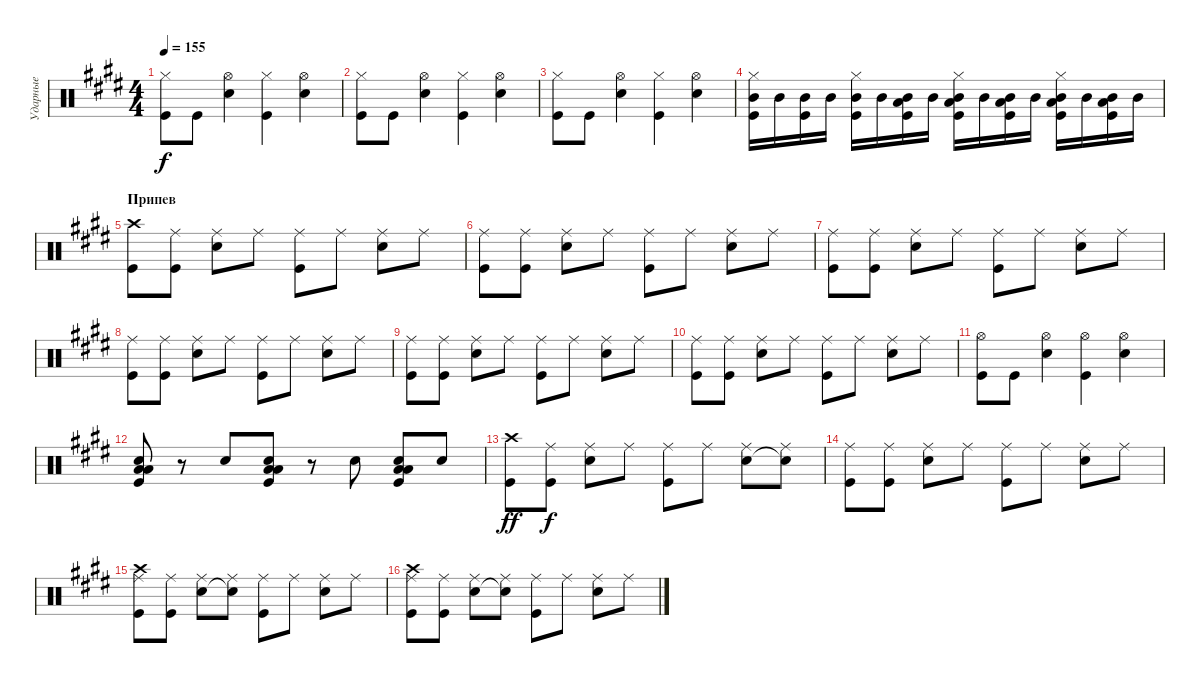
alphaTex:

\track ("Ударные" "Ударные") {instrument percussion}
\staff {score}
\articulation defaults
\ts (4 4)
\tempo 155
\clef neutral
\ks e
("Hi-Hat (closed)" "Kick (hit)").8{dy f} "Kick (hit)".8 ("Hi-Hat (open)" "Snare (hit) 2").4 ("Hi-Hat (closed)" "Kick (hit)").4 ("Hi-Hat (open)" "Snare (hit) 2").4 |
("Hi-Hat (closed)" "Kick (hit)").8 "Kick (hit)".8 ("Hi-Hat (open)" "Snare (hit) 2").4 ("Hi-Hat (closed)" "Kick (hit)").4 ("Hi-Hat (open)" "Snare (hit) 2").4 |
("Hi-Hat (closed)" "Kick (hit)").8 "Kick (hit)".8 ("Hi-Hat (open)" "Snare (hit) 2").4 ("Hi-Hat (closed)" "Kick (hit)").4 ("Hi-Hat (open)" "Snare (hit) 2").4 |
("Hi-Hat (closed)" "Mid Tom (hit)" "Kick (hit)").16 "Mid Tom (hit)".16 ("Mid Tom (hit)" "Kick (hit)").16 "Mid Tom (hit)".16 ("Hi-Hat (closed)" "Mid Tom (hit)" "Kick (hit)").16 "Mid Tom (hit)".16 ("Mid Tom (hit)" "Low Floor Tom (hit)" "Kick (hit)").16 "Mid Tom (hit)".16 ("Hi-Hat (closed)" "Mid Tom (hit)" "Low Floor Tom (hit)" "Kick (hit)").16 "Mid Tom (hit)".16 ("Mid Tom (hit)" "Low Floor Tom (hit)" "Kick (hit)").16 "Mid Tom (hit)".16 ("Hi-Hat (closed)" "Mid Tom (hit)" "Low Floor Tom (hit)" "Kick (hit)").16 "Mid Tom (hit)".16 ("Mid Tom (hit)" "Low Floor Tom (hit)" "Kick (hit)").16 "Mid Tom (hit)".16 |
\section ("" "Припев")
("Crash high (hit)" "Kick (hit)").8 ("Ride (middle)" "Kick (hit)").8 ("Ride (middle)" "Snare (hit) 2").8 "Ride (middle)".8 ("Ride (middle)" "Kick (hit)").8 "Ride (middle)".8 ("Ride (middle)" "Snare (hit) 2").8 "Ride (middle)".8 |
("Ride (middle)" "Kick (hit)").8 ("Ride (middle)" "Kick (hit)").8 ("Ride (middle)" "Snare (hit) 2").8 "Ride (middle)".8 ("Ride (middle)" "Kick (hit)").8 "Ride (middle)".8 ("Ride (middle)" "Snare (hit) 2").8 "Ride (middle)".8 |
("Ride (middle)" "Kick (hit)").8 ("Ride (middle)" "Kick (hit)").8 ("Ride (middle)" "Snare (hit) 2").8 "Ride (middle)".8 ("Ride (middle)" "Kick (hit)").8 "Ride (middle)".8 ("Ride (middle)" "Snare (hit) 2").8 "Ride (middle)".8 |
("Ride (middle)" "Kick (hit)").8 ("Ride (middle)" "Kick (hit)").8 ("Ride (middle)" "Snare (hit) 2").8 "Ride (middle)".8 ("Ride (middle)" "Kick (hit)").8 "Ride (middle)".8 ("Ride (middle)" "Snare (hit) 2").8 "Ride (middle)".8 |
("Ride (middle)" "Kick (hit)").8 ("Ride (middle)" "Kick (hit)").8 ("Ride (middle)" "Snare (hit) 2").8 "Ride (middle)".8 ("Ride (middle)" "Kick (hit)").8 "Ride (middle)".8 ("Ride (middle)" "Snare (hit) 2").8 "Ride (middle)".8 |
("Ride (middle)" "Kick (hit)").8 ("Ride (middle)" "Kick (hit)").8 ("Ride (middle)" "Snare (hit) 2").8 "Ride (middle)".8 ("Ride (middle)" "Kick (hit)").8 "Ride (middle)".8 ("Ride (middle)" "Snare (hit) 2").8 "Ride (middle)".8 |
("Hi-Hat (open)" "Kick (hit)").8 "Kick (hit)".8 ("Hi-Hat (open)" "Snare (hit) 2").4 ("Hi-Hat (open)" "Kick (hit)").4 ("Hi-Hat (open)" "Snare (hit) 2").4 |
("Low Floor Tom (hit)" "Snare (hit) 2" "Low Tom (hit)" "Kick (hit)").8 r.8 "Snare (hit) 2".8 ("Low Floor Tom (hit)" "Snare (hit) 2" "Low Tom (hit)" "Kick (hit)").8 r.8 "Snare (hit) 2".8 ("Low Floor Tom (hit)" "Snare (hit) 2" "Low Tom (hit)" "Kick (hit)").8 "Snare (hit) 2".8 |
("Crash high (hit)" "Kick (hit)").8{dy ff} ("Ride (middle)" "Kick (hit)").8{dy f} ("Ride (middle)" "Snare (hit) 2").8 "Ride (middle)".8 ("Ride (middle)" "Kick (hit)").8 "Ride (middle)".8 ("Ride (middle)" "Snare (hit) 2").8 ("Ride (middle)" "Snare (hit)"{t}).8 |
("Ride (middle)" "Kick (hit)").8 ("Ride (middle)" "Kick (hit)").8 ("Ride (middle)" "Snare (hit) 2").8 "Ride (middle)".8 ("Ride (middle)" "Kick (hit)").8 "Ride (middle)".8 ("Ride (middle)" "Snare (hit) 2").8 "Ride (middle)".8 |
("Ride (middle)" "Crash high (hit)" "Kick (hit)").8 ("Ride (middle)" "Kick (hit)").8 ("Ride (middle)" "Snare (hit) 2").8 ("Ride (middle)" "Snare (hit)"{t}).8 ("Ride (middle)" "Kick (hit)").8 "Ride (middle)".8 ("Ride (middle)" "Snare (hit) 2").8 "Ride (middle)".8 |
("Ride (middle)" "Crash high (hit)" "Kick (hit)").8 ("Ride (middle)" "Kick (hit)").8 ("Ride (middle)" "Snare (hit) 2").8 ("Ride (middle)" "Snare (hit)"{t}).8 ("Ride (middle)" "Kick (hit)").8 "Ride (middle)".8 ("Ride (middle)" "Snare (hit) 2").8 "Ride (middle)".8
